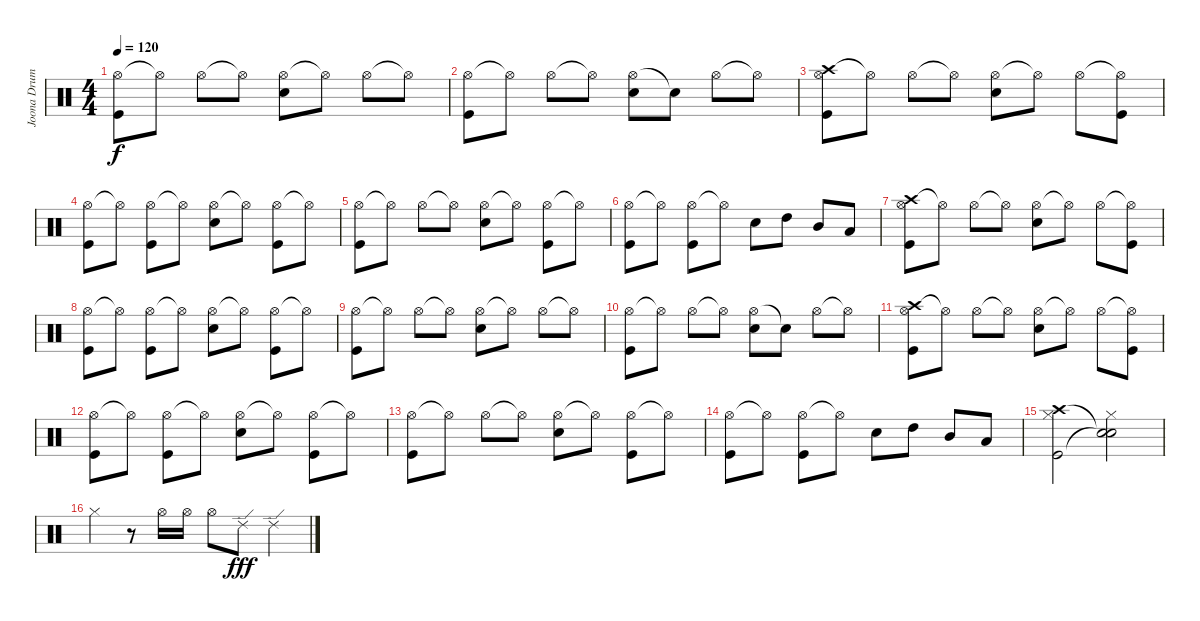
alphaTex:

\track ("Joona Drums" "Joona Drum") {instrument percussion}
\staff {score}
\articulation defaults
\ts (4 4)
\tempo 120
\clef neutral
\ks c
("Hi-Hat (open)" "Kick (hit)").8{dy f} "Hi-Hat (open)"{t}.8 "Hi-Hat (open)".8 "Hi-Hat (open)"{t}.8 ("Hi-Hat (open)" "Snare (hit) 2").8 "Hi-Hat (open)"{t}.8 "Hi-Hat (open)".8 "Hi-Hat (open)"{t}.8 |
("Hi-Hat (open)" "Kick (hit)").8 "Hi-Hat (open)"{t}.8 "Hi-Hat (open)".8 "Hi-Hat (open)"{t}.8 ("Hi-Hat (open)" "Snare (hit) 2").8 "Snare (hit)"{t}.8 "Hi-Hat (open)".8 "Hi-Hat (open)"{t}.8 |
("Crash high (hit)" "Hi-Hat (open)" "Kick (hit)").8 "Hi-Hat (open)"{t}.8 "Hi-Hat (open)".8 "Hi-Hat (open)"{t}.8 ("Hi-Hat (open)" "Snare (hit) 2").8 "Hi-Hat (open)"{t}.8 "Hi-Hat (open)".8 ("Hi-Hat (open)"{t} "Kick (hit)").8 |
("Hi-Hat (open)" "Kick (hit)").8 "Hi-Hat (open)"{t}.8 ("Hi-Hat (open)" "Kick (hit)").8 "Hi-Hat (open)"{t}.8 ("Hi-Hat (open)" "Snare (hit) 2").8 "Hi-Hat (open)"{t}.8 ("Hi-Hat (open)" "Kick (hit)").8 "Hi-Hat (open)"{t}.8 |
("Hi-Hat (open)" "Kick (hit)").8 "Hi-Hat (open)"{t}.8 "Hi-Hat (open)".8 "Hi-Hat (open)"{t}.8 ("Hi-Hat (open)" "Snare (hit) 2").8 "Hi-Hat (open)"{t}.8 ("Hi-Hat (open)" "Kick (hit)").8 "Hi-Hat (open)"{t}.8 |
("Hi-Hat (open)" "Kick (hit)").8 "Hi-Hat (open)"{t}.8 ("Hi-Hat (open)" "Kick (hit)").8 "Hi-Hat (open)"{t}.8 "Snare (hit) 2".8 "High Tom (hit)".8 "Mid Tom (hit)".8 "Low Tom (hit)".8 |
("Crash high (hit)" "Hi-Hat (open)" "Kick (hit)").8 "Hi-Hat (open)"{t}.8 "Hi-Hat (open)".8 "Hi-Hat (open)"{t}.8 ("Hi-Hat (open)" "Snare (hit) 2").8 "Hi-Hat (open)"{t}.8 "Hi-Hat (open)".8 ("Hi-Hat (open)"{t} "Kick (hit)").8 |
("Hi-Hat (open)" "Kick (hit)").8 "Hi-Hat (open)"{t}.8 ("Hi-Hat (open)" "Kick (hit)").8 "Hi-Hat (open)"{t}.8 ("Hi-Hat (open)" "Snare (hit) 2").8 "Hi-Hat (open)"{t}.8 ("Hi-Hat (open)" "Kick (hit)").8 "Hi-Hat (open)"{t}.8 |
("Hi-Hat (open)" "Kick (hit)").8 "Hi-Hat (open)"{t}.8 "Hi-Hat (open)".8 "Hi-Hat (open)"{t}.8 ("Hi-Hat (open)" "Snare (hit) 2").8 "Hi-Hat (open)"{t}.8 "Hi-Hat (open)".8 "Hi-Hat (open)"{t}.8 |
("Hi-Hat (open)" "Kick (hit)").8 "Hi-Hat (open)"{t}.8 "Hi-Hat (open)".8 "Hi-Hat (open)"{t}.8 ("Hi-Hat (open)" "Snare (hit) 2").8 "Snare (hit)"{t}.8 "Hi-Hat (open)".8 "Hi-Hat (open)"{t}.8 |
("Crash high (hit)" "Hi-Hat (open)" "Kick (hit)").8 "Hi-Hat (open)"{t}.8 "Hi-Hat (open)".8 "Hi-Hat (open)"{t}.8 ("Hi-Hat (open)" "Snare (hit) 2").8 "Hi-Hat (open)"{t}.8 "Hi-Hat (open)".8 ("Hi-Hat (open)"{t} "Kick (hit)").8 |
("Hi-Hat (open)" "Kick (hit)").8 "Hi-Hat (open)"{t}.8 ("Hi-Hat (open)" "Kick (hit)").8 "Hi-Hat (open)"{t}.8 ("Hi-Hat (open)" "Snare (hit) 2").8 "Hi-Hat (open)"{t}.8 ("Hi-Hat (open)" "Kick (hit)").8 "Hi-Hat (open)"{t}.8 |
("Hi-Hat (open)" "Kick (hit)").8 "Hi-Hat (open)"{t}.8 "Hi-Hat (open)".8 "Hi-Hat (open)"{t}.8 ("Hi-Hat (open)" "Snare (hit) 2").8 "Hi-Hat (open)"{t}.8 ("Hi-Hat (open)" "Kick (hit)").8 "Hi-Hat (open)"{t}.8 |
("Hi-Hat (open)" "Kick (hit)").8 "Hi-Hat (open)"{t}.8 ("Hi-Hat (open)" "Kick (hit)").8 "Hi-Hat (open)"{t}.8 "Snare (hit) 2".8 "High Tom (hit)".8 "Mid Tom (hit)".8 "Low Tom (hit)".8 |
("Crash high (hit)" "Hi-Hat (closed)" "Kick (hit)").2 ("Snare (hit)"{t} "Hi-Hat (closed)" "Snare (hit)"{t}).2 |
"Hi-Hat (closed)".4 r.8 "Hi-Hat (open)".16 "Hi-Hat (open)".16 "Hi-Hat (open)".8 "Ride (edge) 2".8{dy fff} "Ride (edge) 2".4
